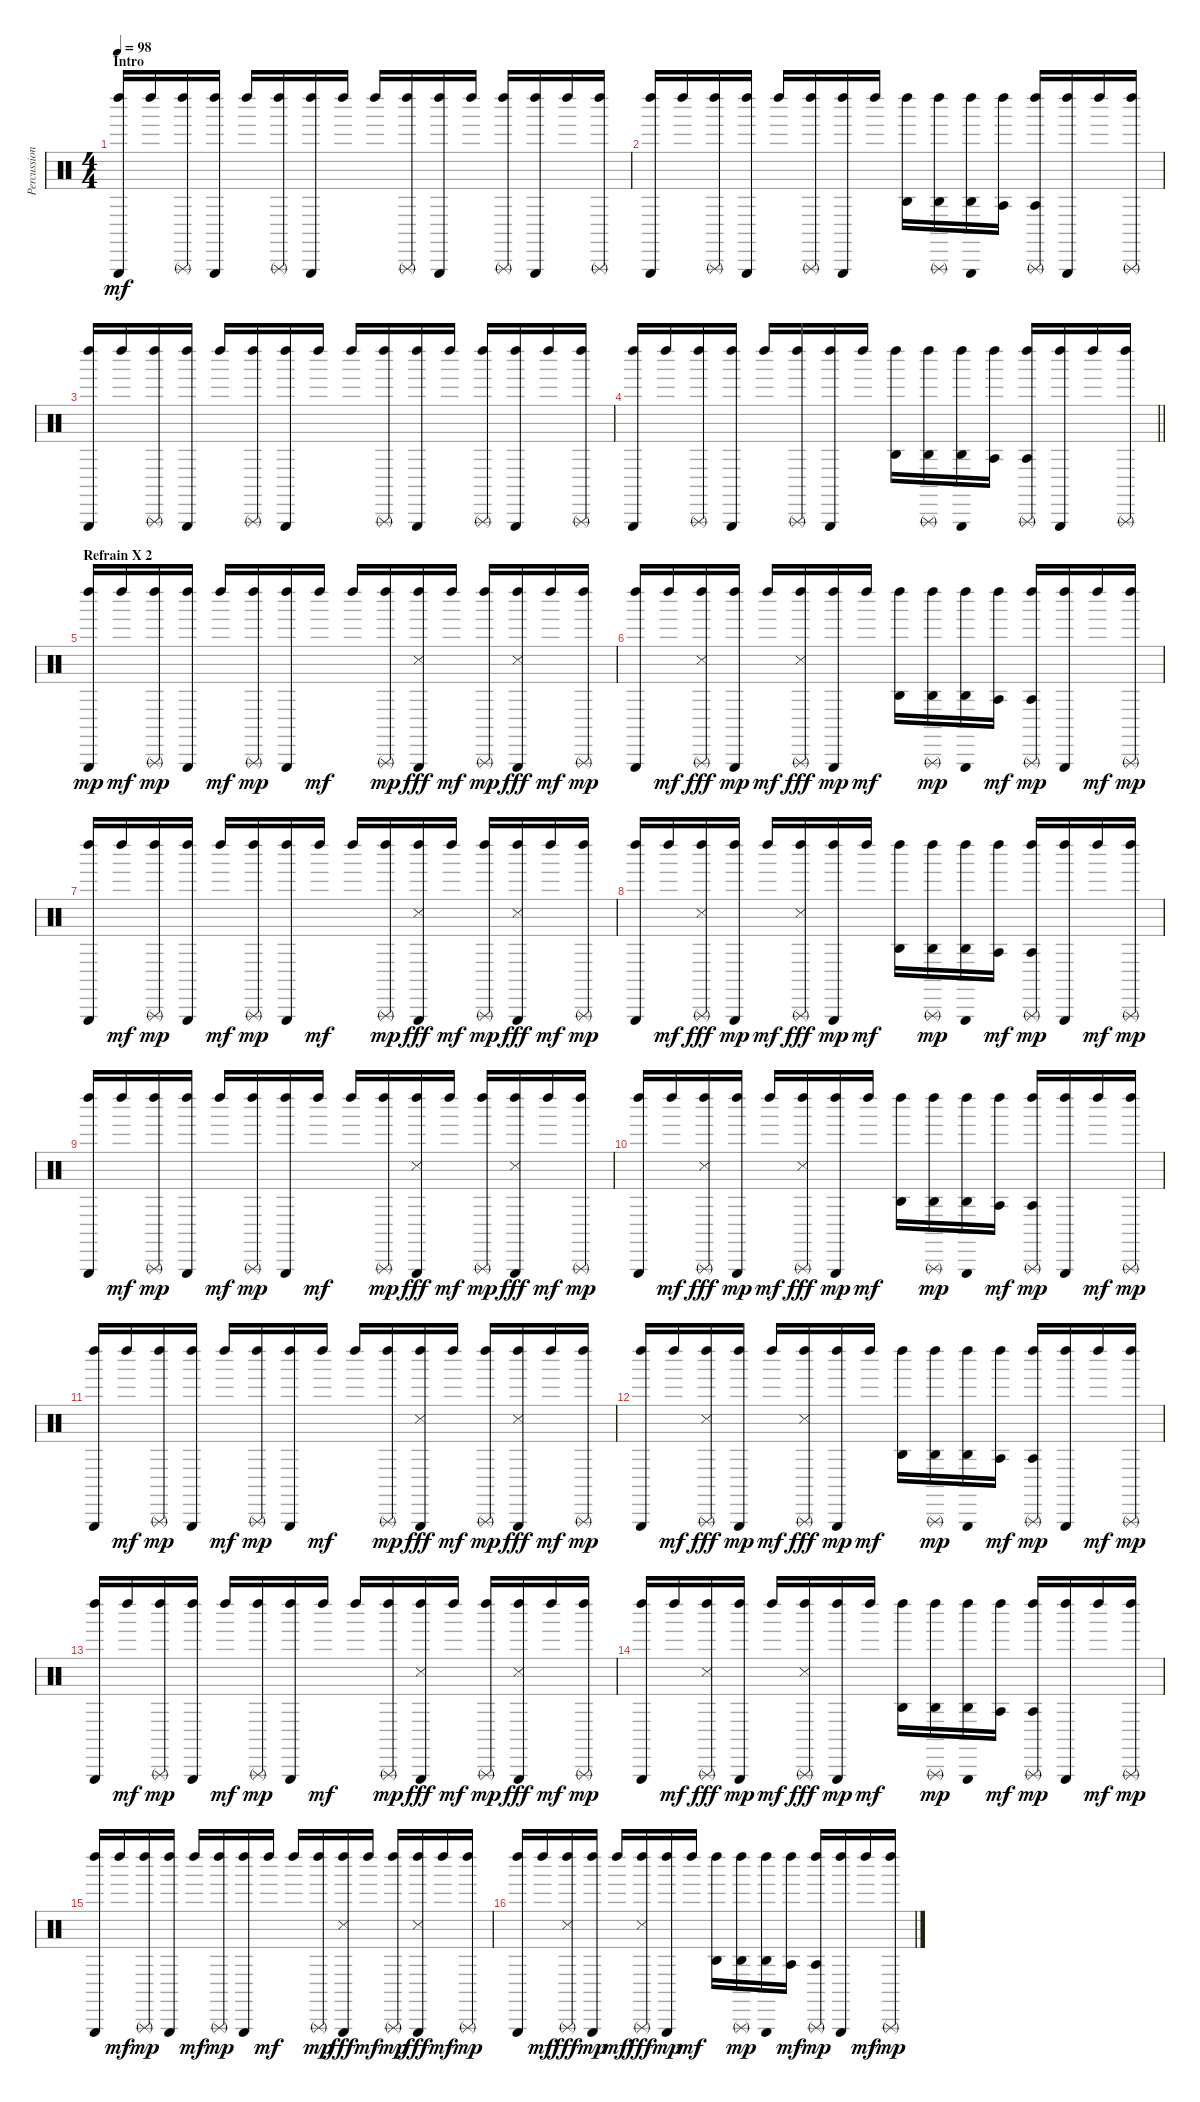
\track ("Percussions (Dr-0)" "Percussion") {instrument percussion}
\staff {score}
\articulation defaults
\ts (4 4)
\section ("" "Intro")
\tempo 98
\clef neutral
\ks c
("Left Maraca (hit)" "Triangle (hit)").16{dy mf} "Left Maraca (hit)".16 ("Left Maraca (hit)" "Triangle (rnute)").16 ("Left Maraca (hit)" "Triangle (hit)").16 "Left Maraca (hit)".16 ("Left Maraca (hit)" "Triangle (rnute)").16 ("Left Maraca (hit)" "Triangle (hit)").16 "Left Maraca (hit)".16 "Left Maraca (hit)".16 ("Left Maraca (hit)" "Triangle (rnute)").16 ("Left Maraca (hit)" "Triangle (hit)").16 "Left Maraca (hit)".16 ("Left Maraca (hit)" "Triangle (rnute)").16 ("Left Maraca (hit)" "Triangle (hit)").16 "Left Maraca (hit)".16 ("Left Maraca (hit)" "Triangle (rnute)").16 |
("Left Maraca (hit)" "Triangle (hit)").16 "Left Maraca (hit)".16 ("Left Maraca (hit)" "Triangle (rnute)").16 ("Left Maraca (hit)" "Triangle (hit)").16 "Left Maraca (hit)".16 ("Left Maraca (hit)" "Triangle (rnute)").16 ("Left Maraca (hit)" "Triangle (hit)").16 "Left Maraca (hit)".16 ("Left Maraca (hit)" "Agogo high (hit)").16 ("Left Maraca (hit)" "Triangle (rnute)" "Agogo high (hit)").16 ("Left Maraca (hit)" "Triangle (hit)" "Agogo high (hit)").16 ("Left Maraca (hit)" "Agogo tow (hit)").16 ("Left Maraca (hit)" "Triangle (rnute)" "Agogo tow (hit)").16 ("Left Maraca (hit)" "Triangle (hit)").16 "Left Maraca (hit)".16 ("Left Maraca (hit)" "Triangle (rnute)").16 |
("Left Maraca (hit)" "Triangle (hit)").16 "Left Maraca (hit)".16 ("Left Maraca (hit)" "Triangle (rnute)").16 ("Left Maraca (hit)" "Triangle (hit)").16 "Left Maraca (hit)".16 ("Left Maraca (hit)" "Triangle (rnute)").16 ("Left Maraca (hit)" "Triangle (hit)").16 "Left Maraca (hit)".16 "Left Maraca (hit)".16 ("Left Maraca (hit)" "Triangle (rnute)").16 ("Left Maraca (hit)" "Triangle (hit)").16 "Left Maraca (hit)".16 ("Left Maraca (hit)" "Triangle (rnute)").16 ("Left Maraca (hit)" "Triangle (hit)").16 "Left Maraca (hit)".16 ("Left Maraca (hit)" "Triangle (rnute)").16 |
\barLineRight lightlight
("Left Maraca (hit)" "Triangle (hit)").16 "Left Maraca (hit)".16 ("Left Maraca (hit)" "Triangle (rnute)").16 ("Left Maraca (hit)" "Triangle (hit)").16 "Left Maraca (hit)".16 ("Left Maraca (hit)" "Triangle (rnute)").16 ("Left Maraca (hit)" "Triangle (hit)").16 "Left Maraca (hit)".16 ("Left Maraca (hit)" "Agogo high (hit)").16 ("Left Maraca (hit)" "Triangle (rnute)" "Agogo high (hit)").16 ("Left Maraca (hit)" "Triangle (hit)" "Agogo high (hit)").16 ("Left Maraca (hit)" "Agogo tow (hit)").16 ("Left Maraca (hit)" "Triangle (rnute)" "Agogo tow (hit)").16 ("Left Maraca (hit)" "Triangle (hit)").16 "Left Maraca (hit)".16 ("Left Maraca (hit)" "Triangle (rnute)").16 |
\section ("" "Refrain X 2")
("Left Maraca (hit)" "Triangle (hit)").16{dy mp} "Left Maraca (hit)".16{dy mf} ("Left Maraca (hit)" "Triangle (rnute)").16{dy mp} ("Left Maraca (hit)" "Triangle (hit)").16 "Left Maraca (hit)".16{dy mf} ("Left Maraca (hit)" "Triangle (rnute)").16{dy mp} ("Left Maraca (hit)" "Triangle (hit)").16 "Left Maraca (hit)".16{dy mf} "Left Maraca (hit)".16 ("Left Maraca (hit)" "Triangle (rnute)").16{dy mp} ("Left Maraca (hit)" "Triangle (hit)" "Snare (side stick) 3").16{dy fff} "Left Maraca (hit)".16{dy mf} ("Left Maraca (hit)" "Triangle (rnute)").16{dy mp} ("Left Maraca (hit)" "Triangle (hit)" "Snare (side stick) 3").16{dy fff} "Left Maraca (hit)".16{dy mf} ("Left Maraca (hit)" "Triangle (rnute)").16{dy mp} |
("Left Maraca (hit)" "Triangle (hit)").16 "Left Maraca (hit)".16{dy mf} ("Left Maraca (hit)" "Triangle (rnute)" "Snare (side stick) 3").16{dy fff} ("Left Maraca (hit)" "Triangle (hit)").16{dy mp} "Left Maraca (hit)".16{dy mf} ("Left Maraca (hit)" "Triangle (rnute)" "Snare (side stick) 3").16{dy fff} ("Left Maraca (hit)" "Triangle (hit)").16{dy mp} "Left Maraca (hit)".16{dy mf} ("Left Maraca (hit)" "Agogo high (hit)").16 ("Left Maraca (hit)" "Triangle (rnute)" "Agogo high (hit)").16{dy mp} ("Left Maraca (hit)" "Triangle (hit)" "Agogo high (hit)").16 ("Left Maraca (hit)" "Agogo tow (hit)").16{dy mf} ("Left Maraca (hit)" "Triangle (rnute)" "Agogo tow (hit)").16{dy mp} ("Left Maraca (hit)" "Triangle (hit)").16 "Left Maraca (hit)".16{dy mf} ("Left Maraca (hit)" "Triangle (rnute)").16{dy mp} |
("Left Maraca (hit)" "Triangle (hit)").16 "Left Maraca (hit)".16{dy mf} ("Left Maraca (hit)" "Triangle (rnute)").16{dy mp} ("Left Maraca (hit)" "Triangle (hit)").16 "Left Maraca (hit)".16{dy mf} ("Left Maraca (hit)" "Triangle (rnute)").16{dy mp} ("Left Maraca (hit)" "Triangle (hit)").16 "Left Maraca (hit)".16{dy mf} "Left Maraca (hit)".16 ("Left Maraca (hit)" "Triangle (rnute)").16{dy mp} ("Left Maraca (hit)" "Triangle (hit)" "Snare (side stick) 3").16{dy fff} "Left Maraca (hit)".16{dy mf} ("Left Maraca (hit)" "Triangle (rnute)").16{dy mp} ("Left Maraca (hit)" "Triangle (hit)" "Snare (side stick) 3").16{dy fff} "Left Maraca (hit)".16{dy mf} ("Left Maraca (hit)" "Triangle (rnute)").16{dy mp} |
("Left Maraca (hit)" "Triangle (hit)").16 "Left Maraca (hit)".16{dy mf} ("Left Maraca (hit)" "Triangle (rnute)" "Snare (side stick) 3").16{dy fff} ("Left Maraca (hit)" "Triangle (hit)").16{dy mp} "Left Maraca (hit)".16{dy mf} ("Left Maraca (hit)" "Triangle (rnute)" "Snare (side stick) 3").16{dy fff} ("Left Maraca (hit)" "Triangle (hit)").16{dy mp} "Left Maraca (hit)".16{dy mf} ("Left Maraca (hit)" "Agogo high (hit)").16 ("Left Maraca (hit)" "Triangle (rnute)" "Agogo high (hit)").16{dy mp} ("Left Maraca (hit)" "Triangle (hit)" "Agogo high (hit)").16 ("Left Maraca (hit)" "Agogo tow (hit)").16{dy mf} ("Left Maraca (hit)" "Triangle (rnute)" "Agogo tow (hit)").16{dy mp} ("Left Maraca (hit)" "Triangle (hit)").16 "Left Maraca (hit)".16{dy mf} ("Left Maraca (hit)" "Triangle (rnute)").16{dy mp} |
("Left Maraca (hit)" "Triangle (hit)").16 "Left Maraca (hit)".16{dy mf} ("Left Maraca (hit)" "Triangle (rnute)").16{dy mp} ("Left Maraca (hit)" "Triangle (hit)").16 "Left Maraca (hit)".16{dy mf} ("Left Maraca (hit)" "Triangle (rnute)").16{dy mp} ("Left Maraca (hit)" "Triangle (hit)").16 "Left Maraca (hit)".16{dy mf} "Left Maraca (hit)".16 ("Left Maraca (hit)" "Triangle (rnute)").16{dy mp} ("Left Maraca (hit)" "Triangle (hit)" "Snare (side stick) 3").16{dy fff} "Left Maraca (hit)".16{dy mf} ("Left Maraca (hit)" "Triangle (rnute)").16{dy mp} ("Left Maraca (hit)" "Triangle (hit)" "Snare (side stick) 3").16{dy fff} "Left Maraca (hit)".16{dy mf} ("Left Maraca (hit)" "Triangle (rnute)").16{dy mp} |
("Left Maraca (hit)" "Triangle (hit)").16 "Left Maraca (hit)".16{dy mf} ("Left Maraca (hit)" "Triangle (rnute)" "Snare (side stick) 3").16{dy fff} ("Left Maraca (hit)" "Triangle (hit)").16{dy mp} "Left Maraca (hit)".16{dy mf} ("Left Maraca (hit)" "Triangle (rnute)" "Snare (side stick) 3").16{dy fff} ("Left Maraca (hit)" "Triangle (hit)").16{dy mp} "Left Maraca (hit)".16{dy mf} ("Left Maraca (hit)" "Agogo high (hit)").16 ("Left Maraca (hit)" "Triangle (rnute)" "Agogo high (hit)").16{dy mp} ("Left Maraca (hit)" "Triangle (hit)" "Agogo high (hit)").16 ("Left Maraca (hit)" "Agogo tow (hit)").16{dy mf} ("Left Maraca (hit)" "Triangle (rnute)" "Agogo tow (hit)").16{dy mp} ("Left Maraca (hit)" "Triangle (hit)").16 "Left Maraca (hit)".16{dy mf} ("Left Maraca (hit)" "Triangle (rnute)").16{dy mp} |
("Left Maraca (hit)" "Triangle (hit)").16 "Left Maraca (hit)".16{dy mf} ("Left Maraca (hit)" "Triangle (rnute)").16{dy mp} ("Left Maraca (hit)" "Triangle (hit)").16 "Left Maraca (hit)".16{dy mf} ("Left Maraca (hit)" "Triangle (rnute)").16{dy mp} ("Left Maraca (hit)" "Triangle (hit)").16 "Left Maraca (hit)".16{dy mf} "Left Maraca (hit)".16 ("Left Maraca (hit)" "Triangle (rnute)").16{dy mp} ("Left Maraca (hit)" "Triangle (hit)" "Snare (side stick) 3").16{dy fff} "Left Maraca (hit)".16{dy mf} ("Left Maraca (hit)" "Triangle (rnute)").16{dy mp} ("Left Maraca (hit)" "Triangle (hit)" "Snare (side stick) 3").16{dy fff} "Left Maraca (hit)".16{dy mf} ("Left Maraca (hit)" "Triangle (rnute)").16{dy mp} |
("Left Maraca (hit)" "Triangle (hit)").16 "Left Maraca (hit)".16{dy mf} ("Left Maraca (hit)" "Triangle (rnute)" "Snare (side stick) 3").16{dy fff} ("Left Maraca (hit)" "Triangle (hit)").16{dy mp} "Left Maraca (hit)".16{dy mf} ("Left Maraca (hit)" "Triangle (rnute)" "Snare (side stick) 3").16{dy fff} ("Left Maraca (hit)" "Triangle (hit)").16{dy mp} "Left Maraca (hit)".16{dy mf} ("Left Maraca (hit)" "Agogo high (hit)").16 ("Left Maraca (hit)" "Triangle (rnute)" "Agogo high (hit)").16{dy mp} ("Left Maraca (hit)" "Triangle (hit)" "Agogo high (hit)").16 ("Left Maraca (hit)" "Agogo tow (hit)").16{dy mf} ("Left Maraca (hit)" "Triangle (rnute)" "Agogo tow (hit)").16{dy mp} ("Left Maraca (hit)" "Triangle (hit)").16 "Left Maraca (hit)".16{dy mf} ("Left Maraca (hit)" "Triangle (rnute)").16{dy mp} |
("Left Maraca (hit)" "Triangle (hit)").16 "Left Maraca (hit)".16{dy mf} ("Left Maraca (hit)" "Triangle (rnute)").16{dy mp} ("Left Maraca (hit)" "Triangle (hit)").16 "Left Maraca (hit)".16{dy mf} ("Left Maraca (hit)" "Triangle (rnute)").16{dy mp} ("Left Maraca (hit)" "Triangle (hit)").16 "Left Maraca (hit)".16{dy mf} "Left Maraca (hit)".16 ("Left Maraca (hit)" "Triangle (rnute)").16{dy mp} ("Left Maraca (hit)" "Triangle (hit)" "Snare (side stick) 3").16{dy fff} "Left Maraca (hit)".16{dy mf} ("Left Maraca (hit)" "Triangle (rnute)").16{dy mp} ("Left Maraca (hit)" "Triangle (hit)" "Snare (side stick) 3").16{dy fff} "Left Maraca (hit)".16{dy mf} ("Left Maraca (hit)" "Triangle (rnute)").16{dy mp} |
("Left Maraca (hit)" "Triangle (hit)").16 "Left Maraca (hit)".16{dy mf} ("Left Maraca (hit)" "Triangle (rnute)" "Snare (side stick) 3").16{dy fff} ("Left Maraca (hit)" "Triangle (hit)").16{dy mp} "Left Maraca (hit)".16{dy mf} ("Left Maraca (hit)" "Triangle (rnute)" "Snare (side stick) 3").16{dy fff} ("Left Maraca (hit)" "Triangle (hit)").16{dy mp} "Left Maraca (hit)".16{dy mf} ("Left Maraca (hit)" "Agogo high (hit)").16 ("Left Maraca (hit)" "Triangle (rnute)" "Agogo high (hit)").16{dy mp} ("Left Maraca (hit)" "Triangle (hit)" "Agogo high (hit)").16 ("Left Maraca (hit)" "Agogo tow (hit)").16{dy mf} ("Left Maraca (hit)" "Triangle (rnute)" "Agogo tow (hit)").16{dy mp} ("Left Maraca (hit)" "Triangle (hit)").16 "Left Maraca (hit)".16{dy mf} ("Left Maraca (hit)" "Triangle (rnute)").16{dy mp} |
("Left Maraca (hit)" "Triangle (hit)").16 "Left Maraca (hit)".16{dy mf} ("Left Maraca (hit)" "Triangle (rnute)").16{dy mp} ("Left Maraca (hit)" "Triangle (hit)").16 "Left Maraca (hit)".16{dy mf} ("Left Maraca (hit)" "Triangle (rnute)").16{dy mp} ("Left Maraca (hit)" "Triangle (hit)").16 "Left Maraca (hit)".16{dy mf} "Left Maraca (hit)".16 ("Left Maraca (hit)" "Triangle (rnute)").16{dy mp} ("Left Maraca (hit)" "Triangle (hit)" "Snare (side stick) 3").16{dy fff} "Left Maraca (hit)".16{dy mf} ("Left Maraca (hit)" "Triangle (rnute)").16{dy mp} ("Left Maraca (hit)" "Triangle (hit)" "Snare (side stick) 3").16{dy fff} "Left Maraca (hit)".16{dy mf} ("Left Maraca (hit)" "Triangle (rnute)").16{dy mp} |
("Left Maraca (hit)" "Triangle (hit)").16 "Left Maraca (hit)".16{dy mf} ("Left Maraca (hit)" "Triangle (rnute)" "Snare (side stick) 3").16{dy fff} ("Left Maraca (hit)" "Triangle (hit)").16{dy mp} "Left Maraca (hit)".16{dy mf} ("Left Maraca (hit)" "Triangle (rnute)" "Snare (side stick) 3").16{dy fff} ("Left Maraca (hit)" "Triangle (hit)").16{dy mp} "Left Maraca (hit)".16{dy mf} ("Left Maraca (hit)" "Agogo high (hit)").16 ("Left Maraca (hit)" "Triangle (rnute)" "Agogo high (hit)").16{dy mp} ("Left Maraca (hit)" "Triangle (hit)" "Agogo high (hit)").16 ("Left Maraca (hit)" "Agogo tow (hit)").16{dy mf} ("Left Maraca (hit)" "Triangle (rnute)" "Agogo tow (hit)").16{dy mp} ("Left Maraca (hit)" "Triangle (hit)").16 "Left Maraca (hit)".16{dy mf} ("Left Maraca (hit)" "Triangle (rnute)").16{dy mp}
